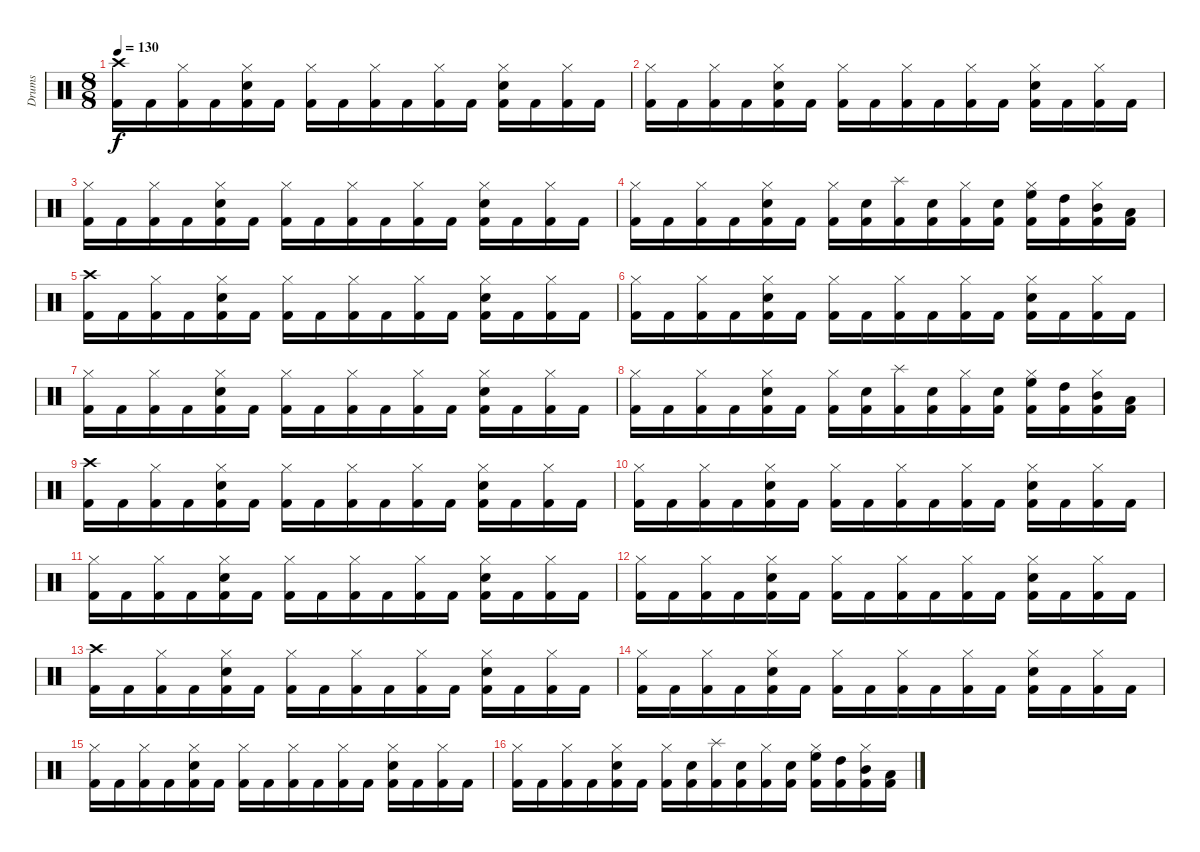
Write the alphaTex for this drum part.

\track ("Drums" "Drums") {instrument percussion}
\staff {score}
\articulation defaults
\ts (8 8)
\tempo 130
\clef neutral
\ks c
("Kick (hit) 2" "Crash high (hit)").16{dy f} "Kick (hit) 2".16 ("Kick (hit) 2" "Hi-Hat (closed)").16 "Kick (hit) 2".16 ("Kick (hit) 2" "Electric Snare (hit)" "Hi-Hat (closed)").16 "Kick (hit) 2".16 ("Kick (hit) 2" "Hi-Hat (closed)").16 "Kick (hit) 2".16 ("Kick (hit) 2" "Hi-Hat (closed)").16 "Kick (hit) 2".16 ("Kick (hit) 2" "Hi-Hat (closed)").16 "Kick (hit) 2".16 ("Kick (hit) 2" "Electric Snare (hit)" "Hi-Hat (closed)").16 "Kick (hit) 2".16 ("Kick (hit) 2" "Hi-Hat (closed)").16 "Kick (hit) 2".16 |
("Kick (hit) 2" "Hi-Hat (closed)").16 "Kick (hit) 2".16 ("Kick (hit) 2" "Hi-Hat (closed)").16 "Kick (hit) 2".16 ("Kick (hit) 2" "Electric Snare (hit)" "Hi-Hat (closed)").16 "Kick (hit) 2".16 ("Kick (hit) 2" "Hi-Hat (closed)").16 "Kick (hit) 2".16 ("Kick (hit) 2" "Hi-Hat (closed)").16 "Kick (hit) 2".16 ("Kick (hit) 2" "Hi-Hat (closed)").16 "Kick (hit) 2".16 ("Kick (hit) 2" "Electric Snare (hit)" "Hi-Hat (closed)").16 "Kick (hit) 2".16 ("Kick (hit) 2" "Hi-Hat (closed)").16 "Kick (hit) 2".16 |
("Kick (hit) 2" "Hi-Hat (closed)").16 "Kick (hit) 2".16 ("Kick (hit) 2" "Hi-Hat (closed)").16 "Kick (hit) 2".16 ("Kick (hit) 2" "Electric Snare (hit)" "Hi-Hat (closed)").16 "Kick (hit) 2".16 ("Kick (hit) 2" "Hi-Hat (closed)").16 "Kick (hit) 2".16 ("Kick (hit) 2" "Hi-Hat (closed)").16 "Kick (hit) 2".16 ("Kick (hit) 2" "Hi-Hat (closed)").16 "Kick (hit) 2".16 ("Kick (hit) 2" "Electric Snare (hit)" "Hi-Hat (closed)").16 "Kick (hit) 2".16 ("Kick (hit) 2" "Hi-Hat (closed)").16 "Kick (hit) 2".16 |
("Kick (hit) 2" "Hi-Hat (closed)").16 "Kick (hit) 2".16 ("Kick (hit) 2" "Hi-Hat (closed)").16 "Kick (hit) 2".16 ("Kick (hit) 2" "Electric Snare (hit)" "Hi-Hat (closed)").16 "Kick (hit) 2".16 ("Kick (hit) 2" "Hi-Hat (closed)").16 ("Kick (hit) 2" "Electric Snare (hit)").16 ("Kick (hit) 2" "Splash (hit)").16 ("Kick (hit) 2" "Electric Snare (hit)").16 ("Kick (hit) 2" "Hi-Hat (closed)").16 ("Kick (hit) 2" "Electric Snare (hit)").16 ("Kick (hit) 2" "Hi-Hat (closed)" "High Floor Tom (hit)").16 ("Kick (hit) 2" "High Tom (hit)").16 ("Kick (hit) 2" "Hi-Hat (closed)" "Mid Tom (hit)").16 ("Kick (hit) 2" "Low Tom (hit)").16 |
("Kick (hit) 2" "Crash high (hit)").16 "Kick (hit) 2".16 ("Kick (hit) 2" "Hi-Hat (closed)").16 "Kick (hit) 2".16 ("Kick (hit) 2" "Electric Snare (hit)" "Hi-Hat (closed)").16 "Kick (hit) 2".16 ("Kick (hit) 2" "Hi-Hat (closed)").16 "Kick (hit) 2".16 ("Kick (hit) 2" "Hi-Hat (closed)").16 "Kick (hit) 2".16 ("Kick (hit) 2" "Hi-Hat (closed)").16 "Kick (hit) 2".16 ("Kick (hit) 2" "Electric Snare (hit)" "Hi-Hat (closed)").16 "Kick (hit) 2".16 ("Kick (hit) 2" "Hi-Hat (closed)").16 "Kick (hit) 2".16 |
("Kick (hit) 2" "Hi-Hat (closed)").16 "Kick (hit) 2".16 ("Kick (hit) 2" "Hi-Hat (closed)").16 "Kick (hit) 2".16 ("Kick (hit) 2" "Electric Snare (hit)" "Hi-Hat (closed)").16 "Kick (hit) 2".16 ("Kick (hit) 2" "Hi-Hat (closed)").16 "Kick (hit) 2".16 ("Kick (hit) 2" "Hi-Hat (closed)").16 "Kick (hit) 2".16 ("Kick (hit) 2" "Hi-Hat (closed)").16 "Kick (hit) 2".16 ("Kick (hit) 2" "Electric Snare (hit)" "Hi-Hat (closed)").16 "Kick (hit) 2".16 ("Kick (hit) 2" "Hi-Hat (closed)").16 "Kick (hit) 2".16 |
("Kick (hit) 2" "Hi-Hat (closed)").16 "Kick (hit) 2".16 ("Kick (hit) 2" "Hi-Hat (closed)").16 "Kick (hit) 2".16 ("Kick (hit) 2" "Electric Snare (hit)" "Hi-Hat (closed)").16 "Kick (hit) 2".16 ("Kick (hit) 2" "Hi-Hat (closed)").16 "Kick (hit) 2".16 ("Kick (hit) 2" "Hi-Hat (closed)").16 "Kick (hit) 2".16 ("Kick (hit) 2" "Hi-Hat (closed)").16 "Kick (hit) 2".16 ("Kick (hit) 2" "Electric Snare (hit)" "Hi-Hat (closed)").16 "Kick (hit) 2".16 ("Kick (hit) 2" "Hi-Hat (closed)").16 "Kick (hit) 2".16 |
("Kick (hit) 2" "Hi-Hat (closed)").16 "Kick (hit) 2".16 ("Kick (hit) 2" "Hi-Hat (closed)").16 "Kick (hit) 2".16 ("Kick (hit) 2" "Electric Snare (hit)" "Hi-Hat (closed)").16 "Kick (hit) 2".16 ("Kick (hit) 2" "Hi-Hat (closed)").16 ("Kick (hit) 2" "Electric Snare (hit)").16 ("Kick (hit) 2" "Splash (hit)").16 ("Kick (hit) 2" "Electric Snare (hit)").16 ("Kick (hit) 2" "Hi-Hat (closed)").16 ("Kick (hit) 2" "Electric Snare (hit)").16 ("Kick (hit) 2" "Hi-Hat (closed)" "High Floor Tom (hit)").16 ("Kick (hit) 2" "High Tom (hit)").16 ("Kick (hit) 2" "Hi-Hat (closed)" "Mid Tom (hit)").16 ("Kick (hit) 2" "Low Tom (hit)").16 |
("Kick (hit) 2" "Crash high (hit)").16 "Kick (hit) 2".16 ("Kick (hit) 2" "Hi-Hat (closed)").16 "Kick (hit) 2".16 ("Kick (hit) 2" "Electric Snare (hit)" "Hi-Hat (closed)").16 "Kick (hit) 2".16 ("Kick (hit) 2" "Hi-Hat (closed)").16 "Kick (hit) 2".16 ("Kick (hit) 2" "Hi-Hat (closed)").16 "Kick (hit) 2".16 ("Kick (hit) 2" "Hi-Hat (closed)").16 "Kick (hit) 2".16 ("Kick (hit) 2" "Electric Snare (hit)" "Hi-Hat (closed)").16 "Kick (hit) 2".16 ("Kick (hit) 2" "Hi-Hat (closed)").16 "Kick (hit) 2".16 |
("Kick (hit) 2" "Hi-Hat (closed)").16 "Kick (hit) 2".16 ("Kick (hit) 2" "Hi-Hat (closed)").16 "Kick (hit) 2".16 ("Kick (hit) 2" "Electric Snare (hit)" "Hi-Hat (closed)").16 "Kick (hit) 2".16 ("Kick (hit) 2" "Hi-Hat (closed)").16 "Kick (hit) 2".16 ("Kick (hit) 2" "Hi-Hat (closed)").16 "Kick (hit) 2".16 ("Kick (hit) 2" "Hi-Hat (closed)").16 "Kick (hit) 2".16 ("Kick (hit) 2" "Electric Snare (hit)" "Hi-Hat (closed)").16 "Kick (hit) 2".16 ("Kick (hit) 2" "Hi-Hat (closed)").16 "Kick (hit) 2".16 |
("Kick (hit) 2" "Hi-Hat (closed)").16 "Kick (hit) 2".16 ("Kick (hit) 2" "Hi-Hat (closed)").16 "Kick (hit) 2".16 ("Kick (hit) 2" "Electric Snare (hit)" "Hi-Hat (closed)").16 "Kick (hit) 2".16 ("Kick (hit) 2" "Hi-Hat (closed)").16 "Kick (hit) 2".16 ("Kick (hit) 2" "Hi-Hat (closed)").16 "Kick (hit) 2".16 ("Kick (hit) 2" "Hi-Hat (closed)").16 "Kick (hit) 2".16 ("Kick (hit) 2" "Electric Snare (hit)" "Hi-Hat (closed)").16 "Kick (hit) 2".16 ("Kick (hit) 2" "Hi-Hat (closed)").16 "Kick (hit) 2".16 |
("Kick (hit) 2" "Hi-Hat (closed)").16 "Kick (hit) 2".16 ("Kick (hit) 2" "Hi-Hat (closed)").16 "Kick (hit) 2".16 ("Kick (hit) 2" "Electric Snare (hit)" "Hi-Hat (closed)").16 "Kick (hit) 2".16 ("Kick (hit) 2" "Hi-Hat (closed)").16 "Kick (hit) 2".16 ("Kick (hit) 2" "Hi-Hat (closed)").16 "Kick (hit) 2".16 ("Kick (hit) 2" "Hi-Hat (closed)").16 "Kick (hit) 2".16 ("Kick (hit) 2" "Electric Snare (hit)" "Hi-Hat (closed)").16 "Kick (hit) 2".16 ("Kick (hit) 2" "Hi-Hat (closed)").16 "Kick (hit) 2".16 |
("Kick (hit) 2" "Crash high (hit)").16 "Kick (hit) 2".16 ("Kick (hit) 2" "Hi-Hat (closed)").16 "Kick (hit) 2".16 ("Kick (hit) 2" "Electric Snare (hit)" "Hi-Hat (closed)").16 "Kick (hit) 2".16 ("Kick (hit) 2" "Hi-Hat (closed)").16 "Kick (hit) 2".16 ("Kick (hit) 2" "Hi-Hat (closed)").16 "Kick (hit) 2".16 ("Kick (hit) 2" "Hi-Hat (closed)").16 "Kick (hit) 2".16 ("Kick (hit) 2" "Electric Snare (hit)" "Hi-Hat (closed)").16 "Kick (hit) 2".16 ("Kick (hit) 2" "Hi-Hat (closed)").16 "Kick (hit) 2".16 |
("Kick (hit) 2" "Hi-Hat (closed)").16 "Kick (hit) 2".16 ("Kick (hit) 2" "Hi-Hat (closed)").16 "Kick (hit) 2".16 ("Kick (hit) 2" "Electric Snare (hit)" "Hi-Hat (closed)").16 "Kick (hit) 2".16 ("Kick (hit) 2" "Hi-Hat (closed)").16 "Kick (hit) 2".16 ("Kick (hit) 2" "Hi-Hat (closed)").16 "Kick (hit) 2".16 ("Kick (hit) 2" "Hi-Hat (closed)").16 "Kick (hit) 2".16 ("Kick (hit) 2" "Electric Snare (hit)" "Hi-Hat (closed)").16 "Kick (hit) 2".16 ("Kick (hit) 2" "Hi-Hat (closed)").16 "Kick (hit) 2".16 |
("Kick (hit) 2" "Hi-Hat (closed)").16 "Kick (hit) 2".16 ("Kick (hit) 2" "Hi-Hat (closed)").16 "Kick (hit) 2".16 ("Kick (hit) 2" "Electric Snare (hit)" "Hi-Hat (closed)").16 "Kick (hit) 2".16 ("Kick (hit) 2" "Hi-Hat (closed)").16 "Kick (hit) 2".16 ("Kick (hit) 2" "Hi-Hat (closed)").16 "Kick (hit) 2".16 ("Kick (hit) 2" "Hi-Hat (closed)").16 "Kick (hit) 2".16 ("Kick (hit) 2" "Electric Snare (hit)" "Hi-Hat (closed)").16 "Kick (hit) 2".16 ("Kick (hit) 2" "Hi-Hat (closed)").16 "Kick (hit) 2".16 |
("Kick (hit) 2" "Hi-Hat (closed)").16 "Kick (hit) 2".16 ("Kick (hit) 2" "Hi-Hat (closed)").16 "Kick (hit) 2".16 ("Kick (hit) 2" "Electric Snare (hit)" "Hi-Hat (closed)").16 "Kick (hit) 2".16 ("Kick (hit) 2" "Hi-Hat (closed)").16 ("Kick (hit) 2" "Electric Snare (hit)").16 ("Kick (hit) 2" "Splash (hit)").16 ("Kick (hit) 2" "Electric Snare (hit)").16 ("Kick (hit) 2" "Hi-Hat (closed)").16 ("Kick (hit) 2" "Electric Snare (hit)").16 ("Kick (hit) 2" "Hi-Hat (closed)" "High Floor Tom (hit)").16 ("Kick (hit) 2" "High Tom (hit)").16 ("Kick (hit) 2" "Hi-Hat (closed)" "Mid Tom (hit)").16 ("Kick (hit) 2" "Low Tom (hit)").16
